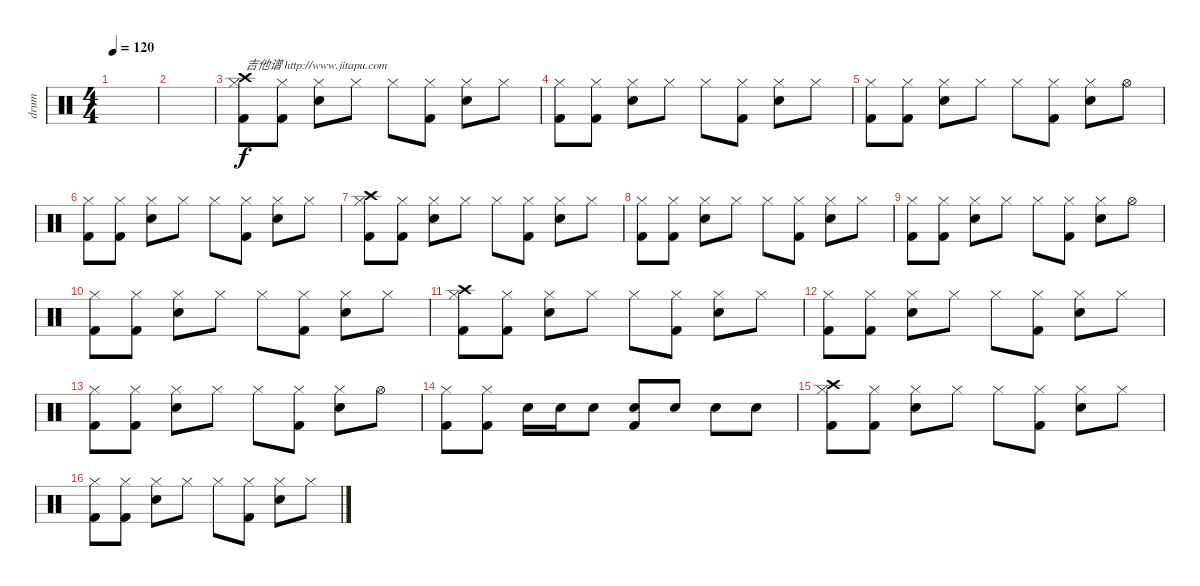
\track ("drum" "drum") {instrument percussion}
\staff {score}
\articulation defaults
\ts (4 4)
\tempo 120
\clef neutral
\ks c
|
|
("Crash high (hit)" "Hi-Hat (closed)" "Kick (hit) 2").8{txt "吉他谱 http://www.jitapu.com"} ("Hi-Hat (closed)" "Kick (hit) 2").8 ("Hi-Hat (closed)" "Electric Snare (hit)").8 "Hi-Hat (closed)".8 "Hi-Hat (closed)".8 ("Hi-Hat (closed)" "Kick (hit) 2").8 ("Hi-Hat (closed)" "Electric Snare (hit)").8 "Hi-Hat (closed)".8 |
("Hi-Hat (closed)" "Kick (hit) 2").8 ("Hi-Hat (closed)" "Kick (hit) 2").8 ("Hi-Hat (closed)" "Electric Snare (hit)").8 "Hi-Hat (closed)".8 "Hi-Hat (closed)".8 ("Hi-Hat (closed)" "Kick (hit) 2").8 ("Hi-Hat (closed)" "Electric Snare (hit)").8 "Hi-Hat (closed)".8 |
("Hi-Hat (closed)" "Kick (hit) 2").8 ("Hi-Hat (closed)" "Kick (hit) 2").8 ("Hi-Hat (closed)" "Electric Snare (hit)").8 "Hi-Hat (closed)".8 "Hi-Hat (closed)".8 ("Hi-Hat (closed)" "Kick (hit) 2").8 ("Hi-Hat (closed)" "Electric Snare (hit)").8 "Hi-Hat (open)".8 |
("Hi-Hat (closed)" "Kick (hit) 2").8 ("Hi-Hat (closed)" "Kick (hit) 2").8 ("Hi-Hat (closed)" "Electric Snare (hit)").8 "Hi-Hat (closed)".8 "Hi-Hat (closed)".8 ("Hi-Hat (closed)" "Kick (hit) 2").8 ("Hi-Hat (closed)" "Electric Snare (hit)").8 "Hi-Hat (closed)".8 |
("Crash high (hit)" "Hi-Hat (closed)" "Kick (hit) 2").8 ("Hi-Hat (closed)" "Kick (hit) 2").8 ("Hi-Hat (closed)" "Electric Snare (hit)").8 "Hi-Hat (closed)".8 "Hi-Hat (closed)".8 ("Hi-Hat (closed)" "Kick (hit) 2").8 ("Hi-Hat (closed)" "Electric Snare (hit)").8 "Hi-Hat (closed)".8 |
("Hi-Hat (closed)" "Kick (hit) 2").8 ("Hi-Hat (closed)" "Kick (hit) 2").8 ("Hi-Hat (closed)" "Electric Snare (hit)").8 "Hi-Hat (closed)".8 "Hi-Hat (closed)".8 ("Hi-Hat (closed)" "Kick (hit) 2").8 ("Hi-Hat (closed)" "Electric Snare (hit)").8 "Hi-Hat (closed)".8 |
("Hi-Hat (closed)" "Kick (hit) 2").8 ("Hi-Hat (closed)" "Kick (hit) 2").8 ("Hi-Hat (closed)" "Electric Snare (hit)").8 "Hi-Hat (closed)".8 "Hi-Hat (closed)".8 ("Hi-Hat (closed)" "Kick (hit) 2").8 ("Hi-Hat (closed)" "Electric Snare (hit)").8 "Hi-Hat (open)".8 |
("Hi-Hat (closed)" "Kick (hit) 2").8 ("Hi-Hat (closed)" "Kick (hit) 2").8 ("Hi-Hat (closed)" "Electric Snare (hit)").8 "Hi-Hat (closed)".8 "Hi-Hat (closed)".8 ("Hi-Hat (closed)" "Kick (hit) 2").8 ("Hi-Hat (closed)" "Electric Snare (hit)").8 "Hi-Hat (closed)".8 |
("Crash high (hit)" "Hi-Hat (closed)" "Kick (hit) 2").8 ("Hi-Hat (closed)" "Kick (hit) 2").8 ("Hi-Hat (closed)" "Electric Snare (hit)").8 "Hi-Hat (closed)".8 "Hi-Hat (closed)".8 ("Hi-Hat (closed)" "Kick (hit) 2").8 ("Hi-Hat (closed)" "Electric Snare (hit)").8 "Hi-Hat (closed)".8 |
("Hi-Hat (closed)" "Kick (hit) 2").8 ("Hi-Hat (closed)" "Kick (hit) 2").8 ("Hi-Hat (closed)" "Electric Snare (hit)").8 "Hi-Hat (closed)".8 "Hi-Hat (closed)".8 ("Hi-Hat (closed)" "Kick (hit) 2").8 ("Hi-Hat (closed)" "Electric Snare (hit)").8 "Hi-Hat (closed)".8 |
("Hi-Hat (closed)" "Kick (hit) 2").8 ("Hi-Hat (closed)" "Kick (hit) 2").8 ("Hi-Hat (closed)" "Electric Snare (hit)").8 "Hi-Hat (closed)".8 "Hi-Hat (closed)".8 ("Hi-Hat (closed)" "Kick (hit) 2").8 ("Hi-Hat (closed)" "Electric Snare (hit)").8 "Hi-Hat (open)".8 |
("Hi-Hat (closed)" "Kick (hit) 2").8 ("Hi-Hat (closed)" "Kick (hit) 2").8 "Electric Snare (hit)".16 "Electric Snare (hit)".16 "Electric Snare (hit)".8 ("Electric Snare (hit)" "Kick (hit) 2").8 "Electric Snare (hit)".8 "Electric Snare (hit)".8 "Electric Snare (hit)".8 |
("Crash high (hit)" "Hi-Hat (closed)" "Kick (hit) 2").8 ("Hi-Hat (closed)" "Kick (hit) 2").8 ("Hi-Hat (closed)" "Electric Snare (hit)").8 "Hi-Hat (closed)".8 "Hi-Hat (closed)".8 ("Hi-Hat (closed)" "Kick (hit) 2").8 ("Hi-Hat (closed)" "Electric Snare (hit)").8 "Hi-Hat (closed)".8 |
("Hi-Hat (closed)" "Kick (hit) 2").8 ("Hi-Hat (closed)" "Kick (hit) 2").8 ("Hi-Hat (closed)" "Electric Snare (hit)").8 "Hi-Hat (closed)".8 "Hi-Hat (closed)".8 ("Hi-Hat (closed)" "Kick (hit) 2").8 ("Hi-Hat (closed)" "Electric Snare (hit)").8 "Hi-Hat (closed)".8
